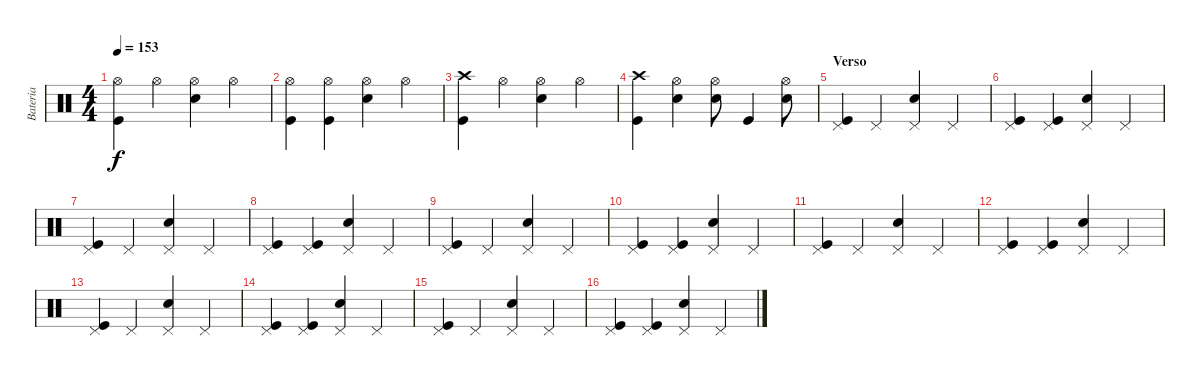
\track ("Bateria" "Bateria") {instrument percussion}
\staff {score}
\articulation defaults
\ts (4 4)
\tempo 153
\clef neutral
\ks c
("Hi-Hat (open)" "Kick (hit)").4{dy f} "Hi-Hat (open)".4 ("Hi-Hat (open)" "Electric Snare (hit)").4 "Hi-Hat (open)".4 |
("Hi-Hat (open)" "Kick (hit)").4 ("Hi-Hat (open)" "Kick (hit)").4 ("Hi-Hat (open)" "Electric Snare (hit)").4 "Hi-Hat (open)".4 |
("Crash high (hit)" "Kick (hit)").4 "Hi-Hat (open)".4 ("Hi-Hat (open)" "Electric Snare (hit)").4 "Hi-Hat (open)".4 |
("Crash high (hit)" "Kick (hit)").4 ("Hi-Hat (open)" "Electric Snare (hit)").4 ("Hi-Hat (open)" "Electric Snare (hit)").8 "Kick (hit)".4 ("Hi-Hat (open)" "Electric Snare (hit)").8 |
\section ("" "Verso")
("Pedal Hi-Hat (hit)" "Kick (hit)").4 "Pedal Hi-Hat (hit)".4 ("Pedal Hi-Hat (hit)" "Electric Snare (hit)").4 "Pedal Hi-Hat (hit)".4 |
("Pedal Hi-Hat (hit)" "Kick (hit)").4 ("Pedal Hi-Hat (hit)" "Kick (hit)").4 ("Pedal Hi-Hat (hit)" "Electric Snare (hit)").4 "Pedal Hi-Hat (hit)".4 |
("Pedal Hi-Hat (hit)" "Kick (hit)").4 "Pedal Hi-Hat (hit)".4 ("Pedal Hi-Hat (hit)" "Electric Snare (hit)").4 "Pedal Hi-Hat (hit)".4 |
("Pedal Hi-Hat (hit)" "Kick (hit)").4 ("Pedal Hi-Hat (hit)" "Kick (hit)").4 ("Pedal Hi-Hat (hit)" "Electric Snare (hit)").4 "Pedal Hi-Hat (hit)".4 |
("Pedal Hi-Hat (hit)" "Kick (hit)").4 "Pedal Hi-Hat (hit)".4 ("Pedal Hi-Hat (hit)" "Electric Snare (hit)").4 "Pedal Hi-Hat (hit)".4 |
("Pedal Hi-Hat (hit)" "Kick (hit)").4 ("Pedal Hi-Hat (hit)" "Kick (hit)").4 ("Pedal Hi-Hat (hit)" "Electric Snare (hit)").4 "Pedal Hi-Hat (hit)".4 |
("Pedal Hi-Hat (hit)" "Kick (hit)").4 "Pedal Hi-Hat (hit)".4 ("Pedal Hi-Hat (hit)" "Electric Snare (hit)").4 "Pedal Hi-Hat (hit)".4 |
("Pedal Hi-Hat (hit)" "Kick (hit)").4 ("Pedal Hi-Hat (hit)" "Kick (hit)").4 ("Pedal Hi-Hat (hit)" "Electric Snare (hit)").4 "Pedal Hi-Hat (hit)".4 |
("Pedal Hi-Hat (hit)" "Kick (hit)").4 "Pedal Hi-Hat (hit)".4 ("Pedal Hi-Hat (hit)" "Electric Snare (hit)").4 "Pedal Hi-Hat (hit)".4 |
("Pedal Hi-Hat (hit)" "Kick (hit)").4 ("Pedal Hi-Hat (hit)" "Kick (hit)").4 ("Pedal Hi-Hat (hit)" "Electric Snare (hit)").4 "Pedal Hi-Hat (hit)".4 |
("Pedal Hi-Hat (hit)" "Kick (hit)").4 "Pedal Hi-Hat (hit)".4 ("Pedal Hi-Hat (hit)" "Electric Snare (hit)").4 "Pedal Hi-Hat (hit)".4 |
("Pedal Hi-Hat (hit)" "Kick (hit)").4 ("Pedal Hi-Hat (hit)" "Kick (hit)").4 ("Pedal Hi-Hat (hit)" "Electric Snare (hit)").4 "Pedal Hi-Hat (hit)".4
